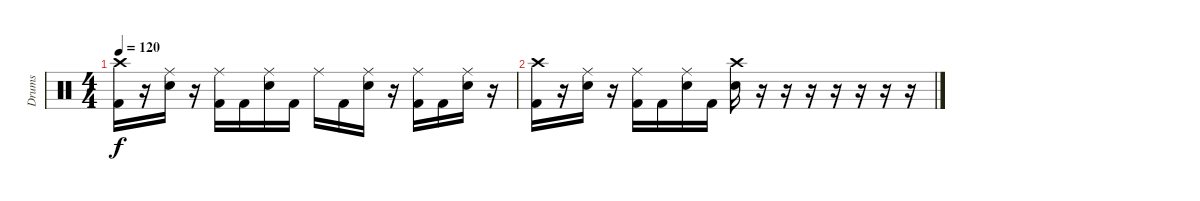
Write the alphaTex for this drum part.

\track ("Drums" "Drums") {instrument percussion}
\staff {score}
\articulation defaults
\ts (4 4)
\tempo 120
\clef neutral
\ks c
("Crash high (hit)" "Kick (hit) 2").16{dy f} r.16 ("Ride (middle)" "Snare (hit) 2").16 r.16 ("Ride (middle)" "Kick (hit) 2").16 "Kick (hit) 2".16 ("Ride (middle)" "Snare (hit) 2").16 "Kick (hit) 2".16 "Ride (middle)".16 "Kick (hit) 2".16 ("Ride (middle)" "Snare (hit) 2").16 r.16 ("Ride (middle)" "Kick (hit) 2").16 "Kick (hit) 2".16 ("Ride (middle)" "Snare (hit) 2").16 r.16 |
("Crash high (hit)" "Kick (hit) 2").16 r.16 ("Ride (middle)" "Snare (hit) 2").16 r.16 ("Ride (middle)" "Kick (hit) 2").16 "Kick (hit) 2".16 ("Ride (middle)" "Snare (hit) 2").16 "Kick (hit) 2".16 ("Crash high (hit)" "Snare (hit) 2").16 r.16 r.16 r.16 r.16 r.16 r.16 r.16
